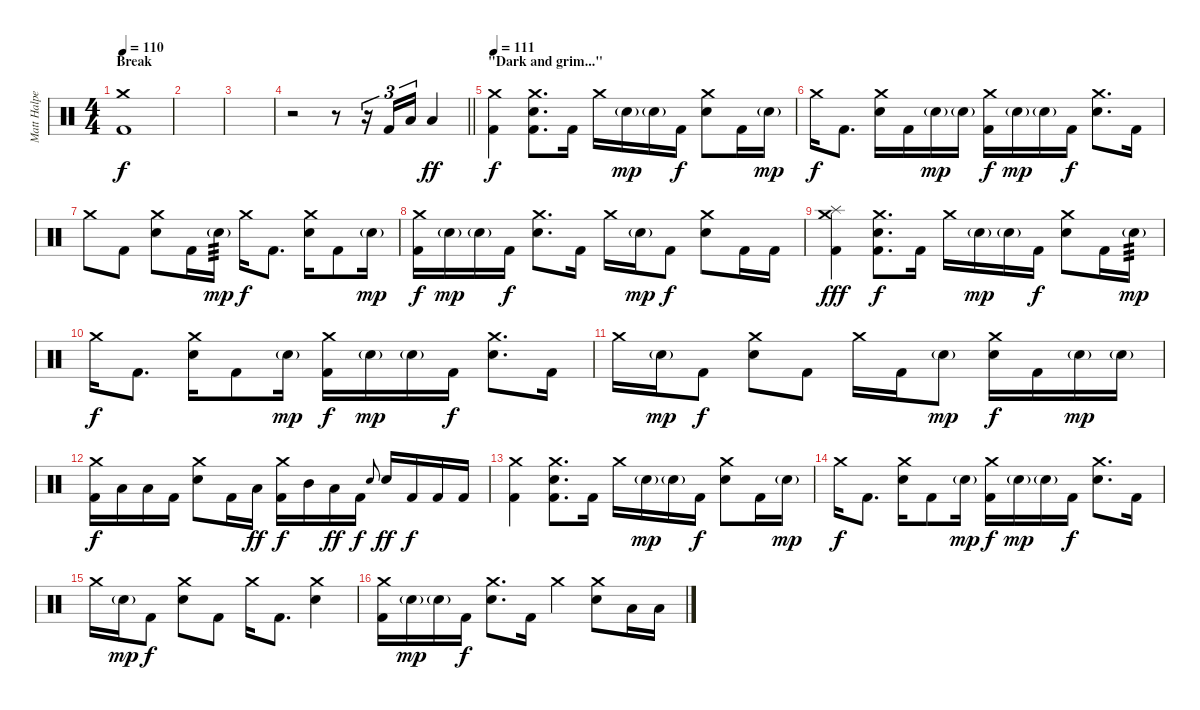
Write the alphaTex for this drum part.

\track ("Matt Halpern - Drums" "Matt Halpe") {instrument percussion}
\staff {score}
\articulation defaults
\ts (4 4)
\section ("" "Break")
\tempo 110
\clef neutral
\ks c
("Crash medium (hit)" "Kick (hit) 2").1{dy f} |
|
|
\barLineRight lightlight
r.2 r.8 r.16{tu (3 2)} "Kick (hit) 2".16{tu (3 2)} "Low Tom (hit)".16{tu (3 2)} "Low Floor Tom (hit)".4{dy ff} |
\section ("" "\"Dark and grim...\"")
\tempo 111
("Crash medium (hit)" "Kick (hit) 2").4{dy f} ("Crash medium (hit)" "Electric Snare (hit)" "Kick (hit) 2").8{d} "Kick (hit) 2".16 "Crash medium (hit)".16 "Electric Snare (hit)"{g}.16{dy mp} "Electric Snare (hit)"{g}.16 "Kick (hit) 2".16{dy f} ("Crash medium (hit)" "Electric Snare (hit)").8 "Kick (hit) 2".16 "Electric Snare (hit)"{g}.16{dy mp} |
"Crash medium (hit)".16{dy f} "Kick (hit) 2".8{d} ("Crash medium (hit)" "Electric Snare (hit)").16 "Kick (hit) 2".16 "Electric Snare (hit)"{g}.16{dy mp} "Electric Snare (hit)"{g}.16 ("Crash medium (hit)" "Kick (hit) 2").16{dy f} "Electric Snare (hit)"{g}.16{dy mp} "Electric Snare (hit)"{g}.16 "Kick (hit) 2".16{dy f} ("Crash medium (hit)" "Electric Snare (hit)").8{d} "Kick (hit) 2".16 |
"Crash medium (hit)".8 "Kick (hit) 2".8 ("Crash medium (hit)" "Electric Snare (hit)").8 "Kick (hit) 2".16 "Electric Snare (hit)"{g}.16{tp 3 dy mp} "Crash medium (hit)".16{dy f} "Kick (hit) 2".8{d} ("Crash medium (hit)" "Electric Snare (hit)").16 "Kick (hit) 2".8 "Electric Snare (hit)"{g}.16{dy mp} |
("Crash medium (hit)" "Kick (hit) 2").16{dy f} "Electric Snare (hit)"{g}.16{dy mp} "Electric Snare (hit)"{g}.16 "Kick (hit) 2".16{dy f} ("Crash medium (hit)" "Electric Snare (hit)").8{d} "Kick (hit) 2".16 "Crash medium (hit)".16 "Electric Snare (hit)"{g}.16{dy mp} "Kick (hit) 2".8{dy f} ("Crash medium (hit)" "Electric Snare (hit)").8 "Kick (hit) 2".16 "Kick (hit) 2".16 |
("Crash medium (hit)" "Splash (hit)" "Kick (hit) 2").4{dy fff} ("Crash medium (hit)" "Electric Snare (hit)" "Kick (hit) 2").8{d dy f} "Kick (hit) 2".16 "Crash medium (hit)".16 "Electric Snare (hit)"{g}.16{dy mp} "Electric Snare (hit)"{g}.16 "Kick (hit) 2".16{dy f} ("Crash medium (hit)" "Electric Snare (hit)").8 "Kick (hit) 2".16 "Electric Snare (hit)"{g}.16{tp 3 dy mp} |
"Crash medium (hit)".16{dy f} "Kick (hit) 2".8{d} ("Crash medium (hit)" "Electric Snare (hit)").16 "Kick (hit) 2".8 "Electric Snare (hit)"{g}.16{dy mp} ("Crash medium (hit)" "Kick (hit) 2").16{dy f} "Electric Snare (hit)"{g}.16{dy mp} "Electric Snare (hit)"{g}.16 "Kick (hit) 2".16{dy f} ("Crash medium (hit)" "Electric Snare (hit)").8{d} "Kick (hit) 2".16 |
"Crash medium (hit)".16 "Electric Snare (hit)"{g}.16{dy mp} "Kick (hit) 2".8{dy f} ("Crash medium (hit)" "Electric Snare (hit)").8 "Kick (hit) 2".8 "Crash medium (hit)".16 "Kick (hit) 2".16 "Electric Snare (hit)"{g}.8{dy mp} ("Crash medium (hit)" "Electric Snare (hit)").16{dy f} "Kick (hit) 2".16 "Electric Snare (hit)"{g}.16{dy mp} "Electric Snare (hit)"{g}.16 |
("Crash medium (hit)" "Kick (hit) 2").16{dy f} "Low Tom (hit)".16 "Low Tom (hit)".16 "Kick (hit) 2".16 ("Crash medium (hit)" "Electric Snare (hit)").8 "Kick (hit) 2".16 "Low Floor Tom (hit)".16{dy ff} ("Crash medium (hit)" "Kick (hit) 2").16{dy f} "Mid Tom (hit)".16 "Low Tom (hit)".16{dy ff} "Kick (hit) 2".16{dy f} "Electric Snare (hit)".8{gr onbeat} "Electric Snare (hit)".16{dy ff} "Kick (hit) 2".16{dy f} "Kick (hit) 2".16 "Kick (hit) 2".16 |
("Crash medium (hit)" "Kick (hit) 2").4 ("Crash medium (hit)" "Electric Snare (hit)" "Kick (hit) 2").8{d} "Kick (hit) 2".16 "Crash medium (hit)".16 "Electric Snare (hit)"{g}.16{dy mp} "Electric Snare (hit)"{g}.16 "Kick (hit) 2".16{dy f} ("Crash medium (hit)" "Electric Snare (hit)").8 "Kick (hit) 2".16 "Electric Snare (hit)"{g}.16{dy mp} |
"Crash medium (hit)".16{dy f} "Kick (hit) 2".8{d} ("Crash medium (hit)" "Electric Snare (hit)").16 "Kick (hit) 2".8 "Electric Snare (hit)"{g}.16{dy mp} ("Crash medium (hit)" "Kick (hit) 2").16{dy f} "Electric Snare (hit)"{g}.16{dy mp} "Electric Snare (hit)"{g}.16 "Kick (hit) 2".16{dy f} ("Crash medium (hit)" "Electric Snare (hit)").8{d} "Kick (hit) 2".16 |
"Crash medium (hit)".16 "Electric Snare (hit)"{g}.16{dy mp} "Kick (hit) 2".8{dy f} ("Crash medium (hit)" "Electric Snare (hit)").8 "Kick (hit) 2".8 "Crash medium (hit)".16 "Kick (hit) 2".8{d} ("Crash medium (hit)" "Electric Snare (hit)").4 |
("Crash medium (hit)" "Kick (hit) 2").16 "Electric Snare (hit)"{g}.16{dy mp} "Electric Snare (hit)"{g}.16 "Kick (hit) 2".16{dy f} ("Crash medium (hit)" "Electric Snare (hit)").8{d} "Kick (hit) 2".16 "Crash medium (hit)".4 ("Crash medium (hit)" "Electric Snare (hit)").8 "Low Tom (hit)".16 "Low Tom (hit)".16
